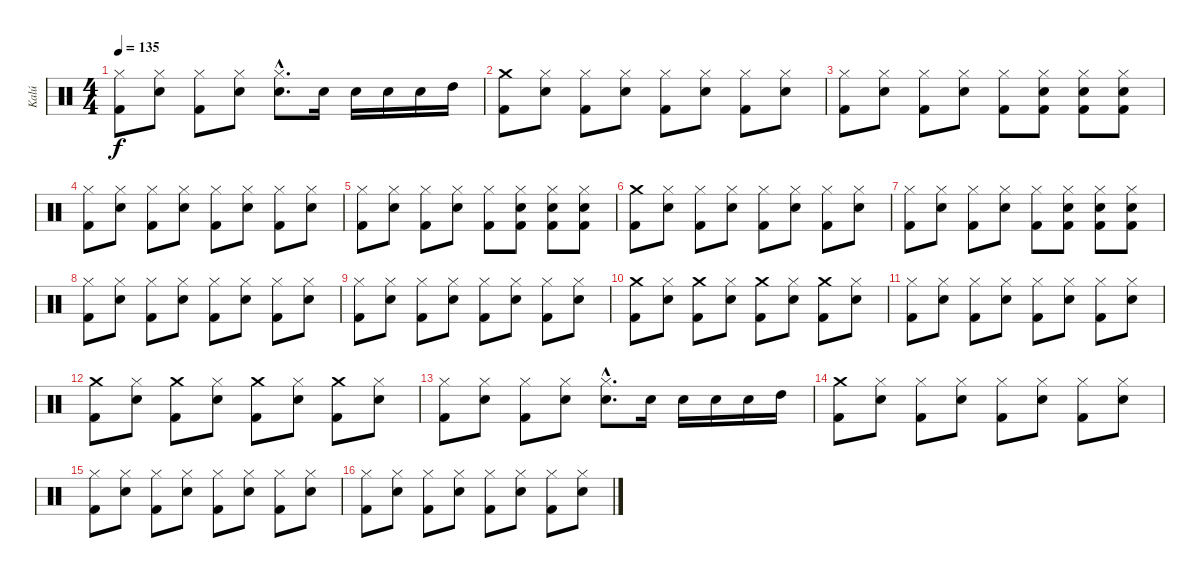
\track ("Kalú" "Kalú") {instrument percussion}
\staff {score}
\articulation defaults
\ts (4 4)
\tempo 135
\clef neutral
\ks c
("Hi-Hat (closed)" "Kick (hit) 2").8{dy f} ("Hi-Hat (closed)" "Electric Snare (hit)").8 ("Hi-Hat (closed)" "Kick (hit) 2").8 ("Hi-Hat (closed)" "Electric Snare (hit)").8 ("Hi-Hat (closed)"{hac} "Electric Snare (hit)"{hac}).8{d} "Electric Snare (hit)".16 "Electric Snare (hit)".16 "Electric Snare (hit)".16 "Electric Snare (hit)".16 "High Tom (hit)".16 |
("Crash medium (hit)" "Kick (hit) 2").8 ("Hi-Hat (closed)" "Electric Snare (hit)").8 ("Hi-Hat (closed)" "Kick (hit) 2").8 ("Hi-Hat (closed)" "Electric Snare (hit)").8 ("Hi-Hat (closed)" "Kick (hit) 2").8 ("Hi-Hat (closed)" "Electric Snare (hit)").8 ("Hi-Hat (closed)" "Kick (hit) 2").8 ("Hi-Hat (closed)" "Electric Snare (hit)").8 |
("Hi-Hat (closed)" "Kick (hit) 2").8 ("Hi-Hat (closed)" "Electric Snare (hit)").8 ("Hi-Hat (closed)" "Kick (hit) 2").8 ("Hi-Hat (closed)" "Electric Snare (hit)").8 ("Hi-Hat (closed)" "Kick (hit) 2").8 ("Hi-Hat (closed)" "Kick (hit) 2" "Electric Snare (hit)").8 ("Hi-Hat (closed)" "Kick (hit) 2" "Electric Snare (hit)").8 ("Hi-Hat (closed)" "Kick (hit) 2" "Electric Snare (hit)").8 |
("Hi-Hat (closed)" "Kick (hit) 2").8 ("Hi-Hat (closed)" "Electric Snare (hit)").8 ("Hi-Hat (closed)" "Kick (hit) 2").8 ("Hi-Hat (closed)" "Electric Snare (hit)").8 ("Hi-Hat (closed)" "Kick (hit) 2").8 ("Hi-Hat (closed)" "Electric Snare (hit)").8 ("Hi-Hat (closed)" "Kick (hit) 2").8 ("Hi-Hat (closed)" "Electric Snare (hit)").8 |
("Hi-Hat (closed)" "Kick (hit) 2").8 ("Hi-Hat (closed)" "Electric Snare (hit)").8 ("Hi-Hat (closed)" "Kick (hit) 2").8 ("Hi-Hat (closed)" "Electric Snare (hit)").8 ("Hi-Hat (closed)" "Kick (hit) 2").8 ("Hi-Hat (closed)" "Kick (hit) 2" "Electric Snare (hit)").8 ("Hi-Hat (closed)" "Kick (hit) 2" "Electric Snare (hit)").8 ("Hi-Hat (closed)" "Kick (hit) 2" "Electric Snare (hit)").8 |
("Crash medium (hit)" "Kick (hit) 2").8 ("Hi-Hat (closed)" "Electric Snare (hit)").8 ("Hi-Hat (closed)" "Kick (hit) 2").8 ("Hi-Hat (closed)" "Electric Snare (hit)").8 ("Hi-Hat (closed)" "Kick (hit) 2").8 ("Hi-Hat (closed)" "Electric Snare (hit)").8 ("Hi-Hat (closed)" "Kick (hit) 2").8 ("Hi-Hat (closed)" "Electric Snare (hit)").8 |
("Hi-Hat (closed)" "Kick (hit) 2").8 ("Hi-Hat (closed)" "Electric Snare (hit)").8 ("Hi-Hat (closed)" "Kick (hit) 2").8 ("Hi-Hat (closed)" "Electric Snare (hit)").8 ("Hi-Hat (closed)" "Kick (hit) 2").8 ("Hi-Hat (closed)" "Kick (hit) 2" "Electric Snare (hit)").8 ("Hi-Hat (closed)" "Kick (hit) 2" "Electric Snare (hit)").8 ("Hi-Hat (closed)" "Kick (hit) 2" "Electric Snare (hit)").8 |
("Hi-Hat (closed)" "Kick (hit) 2").8 ("Hi-Hat (closed)" "Electric Snare (hit)").8 ("Hi-Hat (closed)" "Kick (hit) 2").8 ("Hi-Hat (closed)" "Electric Snare (hit)").8 ("Hi-Hat (closed)" "Kick (hit) 2").8 ("Hi-Hat (closed)" "Electric Snare (hit)").8 ("Hi-Hat (closed)" "Kick (hit) 2").8 ("Hi-Hat (closed)" "Electric Snare (hit)").8 |
("Hi-Hat (closed)" "Kick (hit) 2").8 ("Hi-Hat (closed)" "Electric Snare (hit)").8 ("Hi-Hat (closed)" "Kick (hit) 2").8 ("Hi-Hat (closed)" "Electric Snare (hit)").8 ("Hi-Hat (closed)" "Kick (hit) 2").8 ("Hi-Hat (closed)" "Electric Snare (hit)").8 ("Hi-Hat (closed)" "Kick (hit) 2").8 ("Hi-Hat (closed)" "Electric Snare (hit)").8 |
("Crash medium (hit)" "Kick (hit) 2").8 ("Hi-Hat (closed)" "Electric Snare (hit)").8 ("Crash medium (hit)" "Kick (hit) 2").8 ("Hi-Hat (closed)" "Electric Snare (hit)").8 ("Crash medium (hit)" "Kick (hit) 2").8 ("Hi-Hat (closed)" "Electric Snare (hit)").8 ("Crash medium (hit)" "Kick (hit) 2").8 ("Hi-Hat (closed)" "Electric Snare (hit)").8 |
("Hi-Hat (closed)" "Kick (hit) 2").8 ("Hi-Hat (closed)" "Electric Snare (hit)").8 ("Hi-Hat (closed)" "Kick (hit) 2").8 ("Hi-Hat (closed)" "Electric Snare (hit)").8 ("Hi-Hat (closed)" "Kick (hit) 2").8 ("Hi-Hat (closed)" "Electric Snare (hit)").8 ("Hi-Hat (closed)" "Kick (hit) 2").8 ("Hi-Hat (closed)" "Electric Snare (hit)").8 |
("Crash medium (hit)" "Kick (hit) 2").8 ("Hi-Hat (closed)" "Electric Snare (hit)").8 ("Crash medium (hit)" "Kick (hit) 2").8 ("Hi-Hat (closed)" "Electric Snare (hit)").8 ("Crash medium (hit)" "Kick (hit) 2").8 ("Hi-Hat (closed)" "Electric Snare (hit)").8 ("Crash medium (hit)" "Kick (hit) 2").8 ("Hi-Hat (closed)" "Electric Snare (hit)").8 |
("Hi-Hat (closed)" "Kick (hit) 2").8 ("Hi-Hat (closed)" "Electric Snare (hit)").8 ("Hi-Hat (closed)" "Kick (hit) 2").8 ("Hi-Hat (closed)" "Electric Snare (hit)").8 ("Hi-Hat (closed)"{hac} "Electric Snare (hit)"{hac}).8{d} "Electric Snare (hit)".16 "Electric Snare (hit)".16 "Electric Snare (hit)".16 "Electric Snare (hit)".16 "High Tom (hit)".16 |
("Crash medium (hit)" "Kick (hit) 2").8 ("Hi-Hat (closed)" "Electric Snare (hit)").8 ("Hi-Hat (closed)" "Kick (hit) 2").8 ("Hi-Hat (closed)" "Electric Snare (hit)").8 ("Hi-Hat (closed)" "Kick (hit) 2").8 ("Hi-Hat (closed)" "Electric Snare (hit)").8 ("Hi-Hat (closed)" "Kick (hit) 2").8 ("Hi-Hat (closed)" "Electric Snare (hit)").8 |
("Hi-Hat (closed)" "Kick (hit) 2").8 ("Hi-Hat (closed)" "Electric Snare (hit)").8 ("Hi-Hat (closed)" "Kick (hit) 2").8 ("Hi-Hat (closed)" "Electric Snare (hit)").8 ("Hi-Hat (closed)" "Kick (hit) 2").8 ("Hi-Hat (closed)" "Electric Snare (hit)").8 ("Hi-Hat (closed)" "Kick (hit) 2").8 ("Hi-Hat (closed)" "Electric Snare (hit)").8 |
("Hi-Hat (closed)" "Kick (hit) 2").8 ("Hi-Hat (closed)" "Electric Snare (hit)").8 ("Hi-Hat (closed)" "Kick (hit) 2").8 ("Hi-Hat (closed)" "Electric Snare (hit)").8 ("Hi-Hat (closed)" "Kick (hit) 2").8 ("Hi-Hat (closed)" "Electric Snare (hit)").8 ("Hi-Hat (closed)" "Kick (hit) 2").8 ("Hi-Hat (closed)" "Electric Snare (hit)").8
